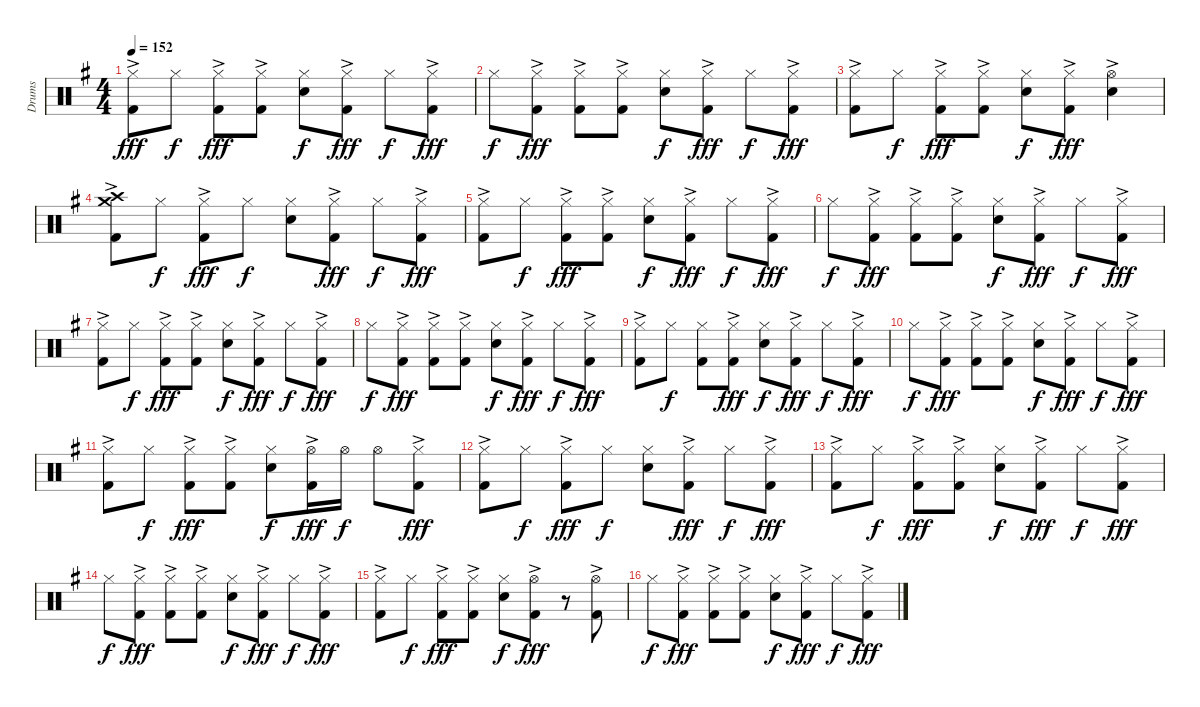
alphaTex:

\track ("Drums" "Drums") {instrument percussion}
\staff {score}
\articulation defaults
\ts (4 4)
\tempo 152
\clef neutral
\ks eminor
("Hi-Hat (closed)" "Kick (hit) 2"{ac}).8{dy fff} "Hi-Hat (closed)".8{dy f} ("Hi-Hat (closed)" "Kick (hit) 2"{ac}).8{dy fff} ("Hi-Hat (closed)" "Kick (hit) 2"{ac}).8 ("Hi-Hat (closed)" "Snare (hit) 2").8{dy f} ("Hi-Hat (closed)" "Kick (hit) 2"{ac}).8{dy fff} "Hi-Hat (closed)".8{dy f} ("Hi-Hat (closed)" "Kick (hit) 2"{ac}).8{dy fff} |
"Hi-Hat (closed)".8{dy f} ("Hi-Hat (closed)" "Kick (hit) 2"{ac}).8{dy fff} ("Hi-Hat (closed)" "Kick (hit) 2"{ac}).8 ("Hi-Hat (closed)" "Kick (hit) 2"{ac}).8 ("Hi-Hat (closed)" "Snare (hit) 2").8{dy f} ("Hi-Hat (closed)" "Kick (hit) 2"{ac}).8{dy fff} "Hi-Hat (closed)".8{dy f} ("Hi-Hat (closed)" "Kick (hit) 2"{ac}).8{dy fff} |
("Hi-Hat (closed)" "Kick (hit) 2"{ac}).8 "Hi-Hat (closed)".8{dy f} ("Hi-Hat (closed)" "Kick (hit) 2"{ac}).8{dy fff} ("Hi-Hat (closed)" "Kick (hit) 2"{ac}).8 ("Hi-Hat (closed)" "Snare (hit) 2").8{dy f} ("Hi-Hat (closed)" "Kick (hit) 2"{ac}).8{dy fff} ("Hi-Hat (open)"{ac} "Snare (hit) 2").4 |
("Crash high (hit)" "Crash medium (hit)" "Kick (hit) 2"{ac}).8 "Hi-Hat (closed)".8{dy f} ("Hi-Hat (closed)" "Kick (hit) 2"{ac}).8{dy fff} "Hi-Hat (closed)".8{dy f} ("Hi-Hat (closed)" "Snare (hit) 2").8 ("Hi-Hat (closed)" "Kick (hit) 2"{ac}).8{dy fff} "Hi-Hat (closed)".8{dy f} ("Hi-Hat (closed)" "Kick (hit) 2"{ac}).8{dy fff} |
("Hi-Hat (closed)" "Kick (hit) 2"{ac}).8 "Hi-Hat (closed)".8{dy f} ("Hi-Hat (closed)" "Kick (hit) 2"{ac}).8{dy fff} ("Hi-Hat (closed)" "Kick (hit) 2"{ac}).8 ("Hi-Hat (closed)" "Snare (hit) 2").8{dy f} ("Hi-Hat (closed)" "Kick (hit) 2"{ac}).8{dy fff} "Hi-Hat (closed)".8{dy f} ("Hi-Hat (closed)" "Kick (hit) 2"{ac}).8{dy fff} |
"Hi-Hat (closed)".8{dy f} ("Hi-Hat (closed)" "Kick (hit) 2"{ac}).8{dy fff} ("Hi-Hat (closed)" "Kick (hit) 2"{ac}).8 ("Hi-Hat (closed)" "Kick (hit) 2"{ac}).8 ("Hi-Hat (closed)" "Snare (hit) 2").8{dy f} ("Hi-Hat (closed)" "Kick (hit) 2"{ac}).8{dy fff} "Hi-Hat (closed)".8{dy f} ("Hi-Hat (closed)" "Kick (hit) 2"{ac}).8{dy fff} |
("Hi-Hat (closed)" "Kick (hit) 2"{ac}).8 "Hi-Hat (closed)".8{dy f} ("Hi-Hat (closed)" "Kick (hit) 2"{ac}).8{dy fff} ("Hi-Hat (closed)" "Kick (hit) 2"{ac}).8 ("Hi-Hat (closed)" "Snare (hit) 2").8{dy f} ("Hi-Hat (closed)" "Kick (hit) 2"{ac}).8{dy fff} "Hi-Hat (closed)".8{dy f} ("Hi-Hat (closed)" "Kick (hit) 2"{ac}).8{dy fff} |
"Hi-Hat (closed)".8{dy f} ("Hi-Hat (closed)" "Kick (hit) 2"{ac}).8{dy fff} ("Hi-Hat (closed)" "Kick (hit) 2"{ac}).8 ("Hi-Hat (closed)" "Kick (hit) 2"{ac}).8 ("Hi-Hat (closed)" "Snare (hit) 2").8{dy f} ("Hi-Hat (closed)" "Kick (hit) 2"{ac}).8{dy fff} "Hi-Hat (closed)".8{dy f} ("Hi-Hat (closed)" "Kick (hit) 2"{ac}).8{dy fff} |
("Hi-Hat (closed)" "Kick (hit) 2"{ac}).8 "Hi-Hat (closed)".8{dy f} ("Hi-Hat (closed)" "Kick (hit) 2").8 ("Hi-Hat (closed)" "Kick (hit) 2"{ac}).8{dy fff} ("Hi-Hat (closed)" "Snare (hit) 2").8{dy f} ("Hi-Hat (closed)" "Kick (hit) 2"{ac}).8{dy fff} "Hi-Hat (closed)".8{dy f} ("Hi-Hat (closed)" "Kick (hit) 2"{ac}).8{dy fff} |
"Hi-Hat (closed)".8{dy f} ("Hi-Hat (closed)" "Kick (hit) 2"{ac}).8{dy fff} ("Hi-Hat (closed)" "Kick (hit) 2"{ac}).8 ("Hi-Hat (closed)" "Kick (hit) 2"{ac}).8 ("Hi-Hat (closed)" "Snare (hit) 2").8{dy f} ("Hi-Hat (closed)" "Kick (hit) 2"{ac}).8{dy fff} "Hi-Hat (closed)".8{dy f} ("Hi-Hat (closed)" "Kick (hit) 2"{ac}).8{dy fff} |
("Hi-Hat (closed)" "Kick (hit) 2"{ac}).8 "Hi-Hat (closed)".8{dy f} ("Hi-Hat (closed)" "Kick (hit) 2"{ac}).8{dy fff} ("Hi-Hat (closed)" "Kick (hit) 2"{ac}).8 ("Hi-Hat (closed)" "Snare (hit) 2").8{dy f} ("Hi-Hat (open)" "Kick (hit) 2"{ac}).16{dy fff} "Hi-Hat (open)".16{dy f} "Hi-Hat (open)".8 ("Hi-Hat (closed)" "Kick (hit) 2"{ac}).8{dy fff} |
("Hi-Hat (closed)" "Kick (hit) 2"{ac}).8 "Hi-Hat (closed)".8{dy f} ("Hi-Hat (closed)" "Kick (hit) 2"{ac}).8{dy fff} "Hi-Hat (closed)".8{dy f} ("Hi-Hat (closed)" "Snare (hit) 2").8 ("Hi-Hat (closed)" "Kick (hit) 2"{ac}).8{dy fff} "Hi-Hat (closed)".8{dy f} ("Hi-Hat (closed)" "Kick (hit) 2"{ac}).8{dy fff} |
("Hi-Hat (closed)" "Kick (hit) 2"{ac}).8 "Hi-Hat (closed)".8{dy f} ("Hi-Hat (closed)" "Kick (hit) 2"{ac}).8{dy fff} ("Hi-Hat (closed)" "Kick (hit) 2"{ac}).8 ("Hi-Hat (closed)" "Snare (hit) 2").8{dy f} ("Hi-Hat (closed)" "Kick (hit) 2"{ac}).8{dy fff} "Hi-Hat (closed)".8{dy f} ("Hi-Hat (closed)" "Kick (hit) 2"{ac}).8{dy fff} |
"Hi-Hat (closed)".8{dy f} ("Hi-Hat (closed)" "Kick (hit) 2"{ac}).8{dy fff} ("Hi-Hat (closed)" "Kick (hit) 2"{ac}).8 ("Hi-Hat (closed)" "Kick (hit) 2"{ac}).8 ("Hi-Hat (closed)" "Snare (hit) 2").8{dy f} ("Hi-Hat (closed)" "Kick (hit) 2"{ac}).8{dy fff} "Hi-Hat (closed)".8{dy f} ("Hi-Hat (closed)" "Kick (hit) 2"{ac}).8{dy fff} |
("Hi-Hat (closed)" "Kick (hit) 2"{ac}).8 "Hi-Hat (closed)".8{dy f} ("Hi-Hat (closed)" "Kick (hit) 2"{ac}).8{dy fff} ("Hi-Hat (closed)" "Kick (hit) 2"{ac}).8 ("Hi-Hat (closed)" "Snare (hit) 2").8{dy f} ("Hi-Hat (open)"{ac} "Kick (hit) 2"{ac}).8{dy fff} r.8 ("Hi-Hat (open)"{ac} "Kick (hit) 2"{ac}).8 |
"Hi-Hat (closed)".8{dy f} ("Hi-Hat (closed)" "Kick (hit) 2"{ac}).8{dy fff} ("Hi-Hat (closed)" "Kick (hit) 2"{ac}).8 ("Hi-Hat (closed)" "Kick (hit) 2"{ac}).8 ("Hi-Hat (closed)" "Snare (hit) 2").8{dy f} ("Hi-Hat (closed)" "Kick (hit) 2"{ac}).8{dy fff} "Hi-Hat (closed)".8{dy f} ("Hi-Hat (closed)" "Kick (hit) 2"{ac}).8{dy fff}
